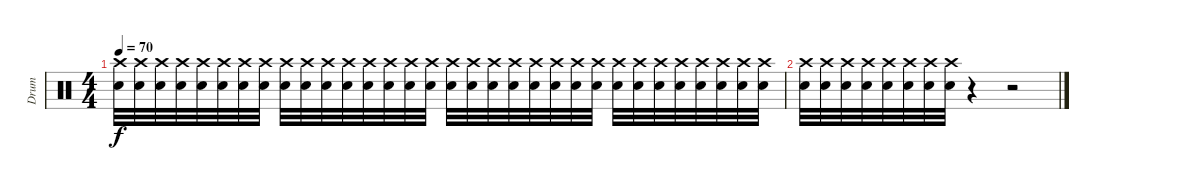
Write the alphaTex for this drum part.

\track ("Drum" "Drum") {instrument percussion}
\staff {score}
\articulation defaults
\ts (4 4)
\tempo 70
\clef neutral
\ks c
("Snare (hit)" "Crash high (hit)").32{dy f} ("Snare (hit)" "Crash high (hit)").32 ("Snare (hit)" "Crash high (hit)").32 ("Snare (hit)" "Crash high (hit)").32 ("Snare (hit)" "Crash high (hit)").32 ("Snare (hit)" "Crash high (hit)").32 ("Snare (hit)" "Crash high (hit)").32 ("Snare (hit)" "Crash high (hit)").32 ("Snare (hit)" "Crash high (hit)").32 ("Snare (hit)" "Crash high (hit)").32 ("Snare (hit)" "Crash high (hit)").32 ("Snare (hit)" "Crash high (hit)").32 ("Snare (hit)" "Crash high (hit)").32 ("Snare (hit)" "Crash high (hit)").32 ("Snare (hit)" "Crash high (hit)").32 ("Snare (hit)" "Crash high (hit)").32 ("Snare (hit)" "Crash high (hit)").32 ("Snare (hit)" "Crash high (hit)").32 ("Snare (hit)" "Crash high (hit)").32 ("Snare (hit)" "Crash high (hit)").32 ("Snare (hit)" "Crash high (hit)").32 ("Snare (hit)" "Crash high (hit)").32 ("Snare (hit)" "Crash high (hit)").32 ("Snare (hit)" "Crash high (hit)").32 ("Snare (hit)" "Crash high (hit)").32 ("Snare (hit)" "Crash high (hit)").32 ("Snare (hit)" "Crash high (hit)").32 ("Snare (hit)" "Crash high (hit)").32 ("Snare (hit)" "Crash high (hit)").32 ("Snare (hit)" "Crash high (hit)").32 ("Snare (hit)" "Crash high (hit)").32 ("Snare (hit)" "Crash high (hit)").32 |
("Snare (hit)" "Crash high (hit)").32 ("Snare (hit)" "Crash high (hit)").32 ("Snare (hit)" "Crash high (hit)").32 ("Snare (hit)" "Crash high (hit)").32 ("Snare (hit)" "Crash high (hit)").32 ("Snare (hit)" "Crash high (hit)").32 ("Snare (hit)" "Crash high (hit)").32 ("Snare (hit)" "Crash high (hit)").32 r.4 r.2
